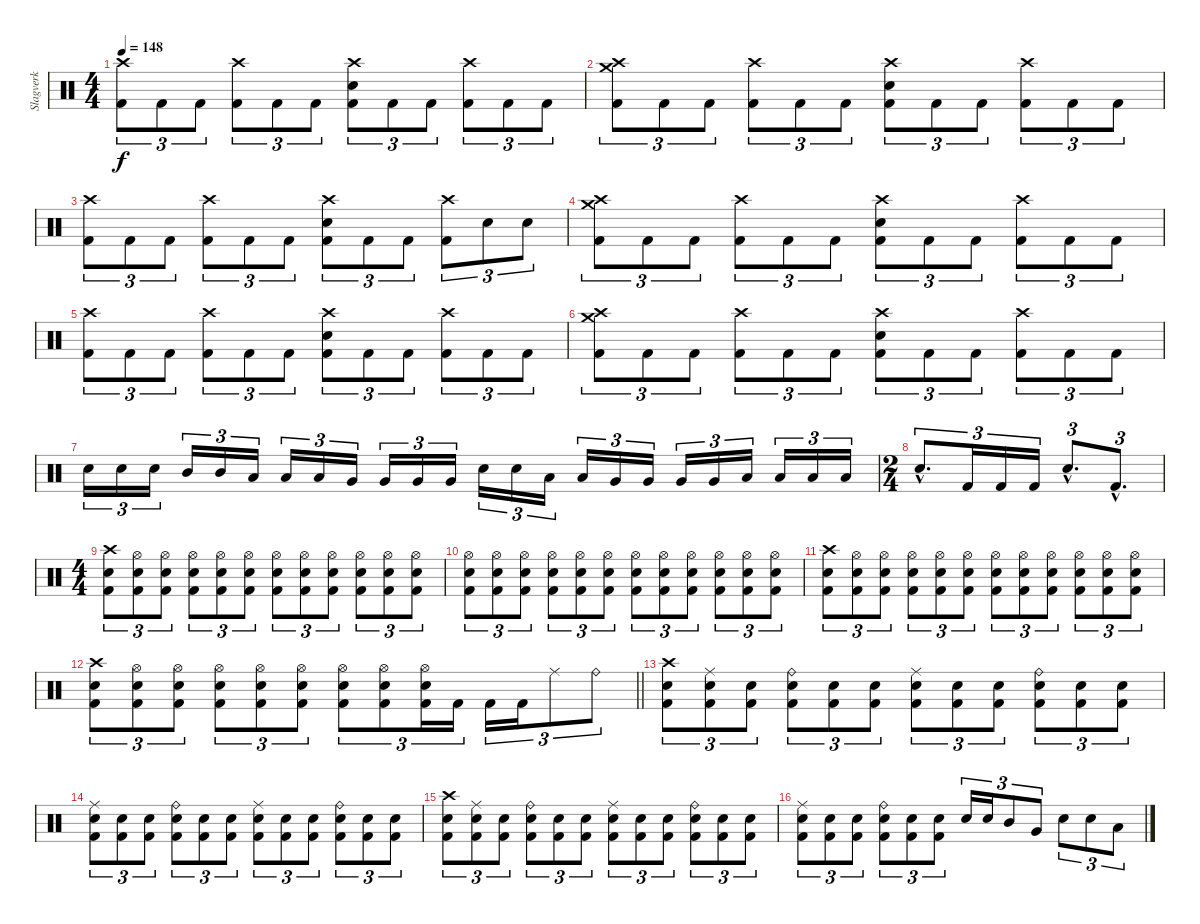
\track ("Slagverk" "Slagverk") {instrument percussion}
\staff {score}
\articulation defaults
\ts (4 4)
\tempo 148
\clef neutral
\ks c
("Crash high (hit)" "Kick (hit) 2").8{tu (3 2) dy f} "Kick (hit) 2".8{tu (3 2)} "Kick (hit) 2".8{tu (3 2)} ("Crash high (hit)" "Kick (hit) 2").8{tu (3 2)} "Kick (hit) 2".8{tu (3 2)} "Kick (hit) 2".8{tu (3 2)} ("Crash high (hit)" "Snare (hit) 2" "Kick (hit) 2").8{tu (3 2)} "Kick (hit) 2".8{tu (3 2)} "Kick (hit) 2".8{tu (3 2)} ("Crash high (hit)" "Kick (hit) 2").8{tu (3 2)} "Kick (hit) 2".8{tu (3 2)} "Kick (hit) 2".8{tu (3 2)} |
("Crash high (hit)" "Crash medium (hit)" "Kick (hit) 2").8{tu (3 2)} "Kick (hit) 2".8{tu (3 2)} "Kick (hit) 2".8{tu (3 2)} ("Crash high (hit)" "Kick (hit) 2").8{tu (3 2)} "Kick (hit) 2".8{tu (3 2)} "Kick (hit) 2".8{tu (3 2)} ("Crash high (hit)" "Snare (hit) 2" "Kick (hit) 2").8{tu (3 2)} "Kick (hit) 2".8{tu (3 2)} "Kick (hit) 2".8{tu (3 2)} ("Crash high (hit)" "Kick (hit) 2").8{tu (3 2)} "Kick (hit) 2".8{tu (3 2)} "Kick (hit) 2".8{tu (3 2)} |
("Crash high (hit)" "Kick (hit) 2").8{tu (3 2)} "Kick (hit) 2".8{tu (3 2)} "Kick (hit) 2".8{tu (3 2)} ("Crash high (hit)" "Kick (hit) 2").8{tu (3 2)} "Kick (hit) 2".8{tu (3 2)} "Kick (hit) 2".8{tu (3 2)} ("Crash high (hit)" "Snare (hit) 2" "Kick (hit) 2").8{tu (3 2)} "Kick (hit) 2".8{tu (3 2)} "Kick (hit) 2".8{tu (3 2)} ("Crash high (hit)" "Kick (hit) 2").8{tu (3 2)} "Snare (hit) 2".8{tu (3 2)} "Snare (hit) 2".8{tu (3 2)} |
("Crash high (hit)" "Crash medium (hit)" "Kick (hit) 2").8{tu (3 2)} "Kick (hit) 2".8{tu (3 2)} "Kick (hit) 2".8{tu (3 2)} ("Crash high (hit)" "Kick (hit) 2").8{tu (3 2)} "Kick (hit) 2".8{tu (3 2)} "Kick (hit) 2".8{tu (3 2)} ("Crash high (hit)" "Snare (hit) 2" "Kick (hit) 2").8{tu (3 2)} "Kick (hit) 2".8{tu (3 2)} "Kick (hit) 2".8{tu (3 2)} ("Crash high (hit)" "Kick (hit) 2").8{tu (3 2)} "Kick (hit) 2".8{tu (3 2)} "Kick (hit) 2".8{tu (3 2)} |
("Crash high (hit)" "Kick (hit) 2").8{tu (3 2)} "Kick (hit) 2".8{tu (3 2)} "Kick (hit) 2".8{tu (3 2)} ("Crash high (hit)" "Kick (hit) 2").8{tu (3 2)} "Kick (hit) 2".8{tu (3 2)} "Kick (hit) 2".8{tu (3 2)} ("Crash high (hit)" "Snare (hit) 2" "Kick (hit) 2").8{tu (3 2)} "Kick (hit) 2".8{tu (3 2)} "Kick (hit) 2".8{tu (3 2)} ("Crash high (hit)" "Kick (hit) 2").8{tu (3 2)} "Kick (hit) 2".8{tu (3 2)} "Kick (hit) 2".8{tu (3 2)} |
("Crash high (hit)" "Crash medium (hit)" "Kick (hit) 2").8{tu (3 2)} "Kick (hit) 2".8{tu (3 2)} "Kick (hit) 2".8{tu (3 2)} ("Crash high (hit)" "Kick (hit) 2").8{tu (3 2)} "Kick (hit) 2".8{tu (3 2)} "Kick (hit) 2".8{tu (3 2)} ("Crash high (hit)" "Snare (hit) 2" "Kick (hit) 2").8{tu (3 2)} "Kick (hit) 2".8{tu (3 2)} "Kick (hit) 2".8{tu (3 2)} ("Crash high (hit)" "Kick (hit) 2").8{tu (3 2)} "Kick (hit) 2".8{tu (3 2)} "Kick (hit) 2".8{tu (3 2)} |
"Snare (hit) 2".16{tu (3 2)} "Snare (hit) 2".16{tu (3 2)} "Snare (hit) 2".16{tu (3 2)} "Mid Tom (hit)".16{tu (3 2)} "Mid Tom (hit)".16{tu (3 2)} "Low Tom (hit)".16{tu (3 2)} "Low Tom (hit)".16{tu (3 2)} "Low Tom (hit)".16{tu (3 2)} "Very Low Tom (hit)".16{tu (3 2)} "Very Low Tom (hit)".16{tu (3 2)} "Very Low Tom (hit)".16{tu (3 2)} "Very Low Tom (hit)".16{tu (3 2)} "Snare (hit) 2".16{tu (3 2)} "Snare (hit) 2".16{tu (3 2)} "Low Tom (hit)".16{tu (3 2)} "Low Tom (hit)".16{tu (3 2)} "Very Low Tom (hit)".16{tu (3 2)} "Very Low Tom (hit)".16{tu (3 2)} "Very Low Tom (hit)".16{tu (3 2)} "Very Low Tom (hit)".16{tu (3 2)} "Low Floor Tom (hit)".16{tu (3 2)} "Low Floor Tom (hit)".16{tu (3 2)} "Low Floor Tom (hit)".16{tu (3 2)} "Low Floor Tom (hit)".16{tu (3 2)} |
\ts (2 4)
"Snare (hit) 2"{hac}.8{d tu (3 2)} "Kick (hit) 2".16{tu (3 2)} "Kick (hit) 2".16{tu (3 2)} "Kick (hit) 2".16{tu (3 2)} "Snare (hit) 2"{hac}.8{d tu (3 2)} "Kick (hit) 2"{hac}.8{d tu (3 2)} |
\ts (4 4)
("Crash high (hit)" "Snare (hit) 2" "Kick (hit) 2").8{tu (3 2)} ("Hi-Hat (open)" "Snare (hit) 2" "Kick (hit) 2").8{tu (3 2)} ("Hi-Hat (open)" "Snare (hit) 2" "Kick (hit) 2").8{tu (3 2)} ("Hi-Hat (open)" "Snare (hit) 2" "Kick (hit) 2").8{tu (3 2)} ("Hi-Hat (open)" "Snare (hit) 2" "Kick (hit) 2").8{tu (3 2)} ("Hi-Hat (open)" "Snare (hit) 2" "Kick (hit) 2").8{tu (3 2)} ("Hi-Hat (open)" "Snare (hit) 2" "Kick (hit) 2").8{tu (3 2)} ("Hi-Hat (open)" "Snare (hit) 2" "Kick (hit) 2").8{tu (3 2)} ("Hi-Hat (open)" "Snare (hit) 2" "Kick (hit) 2").8{tu (3 2)} ("Hi-Hat (open)" "Snare (hit) 2" "Kick (hit) 2").8{tu (3 2)} ("Hi-Hat (open)" "Snare (hit) 2" "Kick (hit) 2").8{tu (3 2)} ("Hi-Hat (open)" "Snare (hit) 2" "Kick (hit) 2").8{tu (3 2)} |
("Hi-Hat (open)" "Snare (hit) 2" "Kick (hit) 2").8{tu (3 2)} ("Hi-Hat (open)" "Snare (hit) 2" "Kick (hit) 2").8{tu (3 2)} ("Hi-Hat (open)" "Snare (hit) 2" "Kick (hit) 2").8{tu (3 2)} ("Hi-Hat (open)" "Snare (hit) 2" "Kick (hit) 2").8{tu (3 2)} ("Hi-Hat (open)" "Snare (hit) 2" "Kick (hit) 2").8{tu (3 2)} ("Hi-Hat (open)" "Snare (hit) 2" "Kick (hit) 2").8{tu (3 2)} ("Hi-Hat (open)" "Snare (hit) 2" "Kick (hit) 2").8{tu (3 2)} ("Hi-Hat (open)" "Snare (hit) 2" "Kick (hit) 2").8{tu (3 2)} ("Hi-Hat (open)" "Snare (hit) 2" "Kick (hit) 2").8{tu (3 2)} ("Hi-Hat (open)" "Snare (hit) 2" "Kick (hit) 2").8{tu (3 2)} ("Hi-Hat (open)" "Snare (hit) 2" "Kick (hit) 2").8{tu (3 2)} ("Hi-Hat (open)" "Snare (hit) 2" "Kick (hit) 2").8{tu (3 2)} |
("Crash high (hit)" "Snare (hit) 2" "Kick (hit) 2").8{tu (3 2)} ("Hi-Hat (open)" "Snare (hit) 2" "Kick (hit) 2").8{tu (3 2)} ("Hi-Hat (open)" "Snare (hit) 2" "Kick (hit) 2").8{tu (3 2)} ("Hi-Hat (open)" "Snare (hit) 2" "Kick (hit) 2").8{tu (3 2)} ("Hi-Hat (open)" "Snare (hit) 2" "Kick (hit) 2").8{tu (3 2)} ("Hi-Hat (open)" "Snare (hit) 2" "Kick (hit) 2").8{tu (3 2)} ("Hi-Hat (open)" "Snare (hit) 2" "Kick (hit) 2").8{tu (3 2)} ("Hi-Hat (open)" "Snare (hit) 2" "Kick (hit) 2").8{tu (3 2)} ("Hi-Hat (open)" "Snare (hit) 2" "Kick (hit) 2").8{tu (3 2)} ("Hi-Hat (open)" "Snare (hit) 2" "Kick (hit) 2").8{tu (3 2)} ("Hi-Hat (open)" "Snare (hit) 2" "Kick (hit) 2").8{tu (3 2)} ("Hi-Hat (open)" "Snare (hit) 2" "Kick (hit) 2").8{tu (3 2)} |
\barLineRight lightlight
("Crash high (hit)" "Snare (hit) 2" "Kick (hit) 2").8{tu (3 2)} ("Hi-Hat (open)" "Snare (hit) 2" "Kick (hit) 2").8{tu (3 2)} ("Hi-Hat (open)" "Snare (hit) 2" "Kick (hit) 2").8{tu (3 2)} ("Hi-Hat (open)" "Snare (hit) 2" "Kick (hit) 2").8{tu (3 2)} ("Hi-Hat (open)" "Snare (hit) 2" "Kick (hit) 2").8{tu (3 2)} ("Hi-Hat (open)" "Snare (hit) 2" "Kick (hit) 2").8{tu (3 2)} ("Hi-Hat (open)" "Snare (hit) 2" "Kick (hit) 2").8{tu (3 2)} ("Hi-Hat (open)" "Snare (hit) 2" "Kick (hit) 2").8{tu (3 2)} ("Hi-Hat (open)" "Snare (hit) 2" "Kick (hit) 2").16{tu (3 2)} "Kick (hit) 2".16{tu (3 2)} "Kick (hit) 2".16{tu (3 2)} "Kick (hit) 2".16{tu (3 2)} "Ride (middle)".8{tu (3 2)} "Ride (bell)".8{tu (3 2)} |
("Crash high (hit)" "Snare (hit) 2" "Kick (hit) 2").8{tu (3 2)} ("Ride (middle)" "Snare (hit) 2" "Kick (hit) 2").8{tu (3 2)} ("Snare (hit) 2" "Kick (hit) 2").8{tu (3 2)} ("Ride (bell)" "Snare (hit) 2" "Kick (hit) 2").8{tu (3 2)} ("Snare (hit) 2" "Kick (hit) 2").8{tu (3 2)} ("Snare (hit) 2" "Kick (hit) 2").8{tu (3 2)} ("Ride (middle)" "Snare (hit) 2" "Kick (hit) 2").8{tu (3 2)} ("Snare (hit) 2" "Kick (hit) 2").8{tu (3 2)} ("Snare (hit) 2" "Kick (hit) 2").8{tu (3 2)} ("Ride (bell)" "Snare (hit) 2" "Kick (hit) 2").8{tu (3 2)} ("Snare (hit) 2" "Kick (hit) 2").8{tu (3 2)} ("Snare (hit) 2" "Kick (hit) 2").8{tu (3 2)} |
("Ride (middle)" "Snare (hit) 2" "Kick (hit) 2").8{tu (3 2)} ("Snare (hit) 2" "Kick (hit) 2").8{tu (3 2)} ("Snare (hit) 2" "Kick (hit) 2").8{tu (3 2)} ("Ride (bell)" "Snare (hit) 2" "Kick (hit) 2").8{tu (3 2)} ("Snare (hit) 2" "Kick (hit) 2").8{tu (3 2)} ("Snare (hit) 2" "Kick (hit) 2").8{tu (3 2)} ("Ride (middle)" "Snare (hit) 2" "Kick (hit) 2").8{tu (3 2)} ("Snare (hit) 2" "Kick (hit) 2").8{tu (3 2)} ("Snare (hit) 2" "Kick (hit) 2").8{tu (3 2)} ("Ride (bell)" "Snare (hit) 2" "Kick (hit) 2").8{tu (3 2)} ("Snare (hit) 2" "Kick (hit) 2").8{tu (3 2)} ("Snare (hit) 2" "Kick (hit) 2").8{tu (3 2)} |
("Crash high (hit)" "Snare (hit) 2" "Kick (hit) 2").8{tu (3 2)} ("Ride (middle)" "Snare (hit) 2" "Kick (hit) 2").8{tu (3 2)} ("Snare (hit) 2" "Kick (hit) 2").8{tu (3 2)} ("Ride (bell)" "Snare (hit) 2" "Kick (hit) 2").8{tu (3 2)} ("Snare (hit) 2" "Kick (hit) 2").8{tu (3 2)} ("Snare (hit) 2" "Kick (hit) 2").8{tu (3 2)} ("Ride (middle)" "Snare (hit) 2" "Kick (hit) 2").8{tu (3 2)} ("Snare (hit) 2" "Kick (hit) 2").8{tu (3 2)} ("Snare (hit) 2" "Kick (hit) 2").8{tu (3 2)} ("Ride (bell)" "Snare (hit) 2" "Kick (hit) 2").8{tu (3 2)} ("Snare (hit) 2" "Kick (hit) 2").8{tu (3 2)} ("Snare (hit) 2" "Kick (hit) 2").8{tu (3 2)} |
("Ride (middle)" "Snare (hit) 2" "Kick (hit) 2").8{tu (3 2)} ("Snare (hit) 2" "Kick (hit) 2").8{tu (3 2)} ("Snare (hit) 2" "Kick (hit) 2").8{tu (3 2)} ("Ride (bell)" "Snare (hit) 2" "Kick (hit) 2").8{tu (3 2)} ("Snare (hit) 2" "Kick (hit) 2").8{tu (3 2)} ("Snare (hit) 2" "Kick (hit) 2").8{tu (3 2)} "Snare (hit) 2".16{tu (3 2)} "Snare (hit) 2".16{tu (3 2)} "Mid Tom (hit)".8{tu (3 2)} "Very Low Tom (hit)".8{tu (3 2)} "Snare (hit) 2".8{tu (3 2)} "Snare (hit) 2".8{tu (3 2)} "Low Tom (hit)".8{tu (3 2)}
